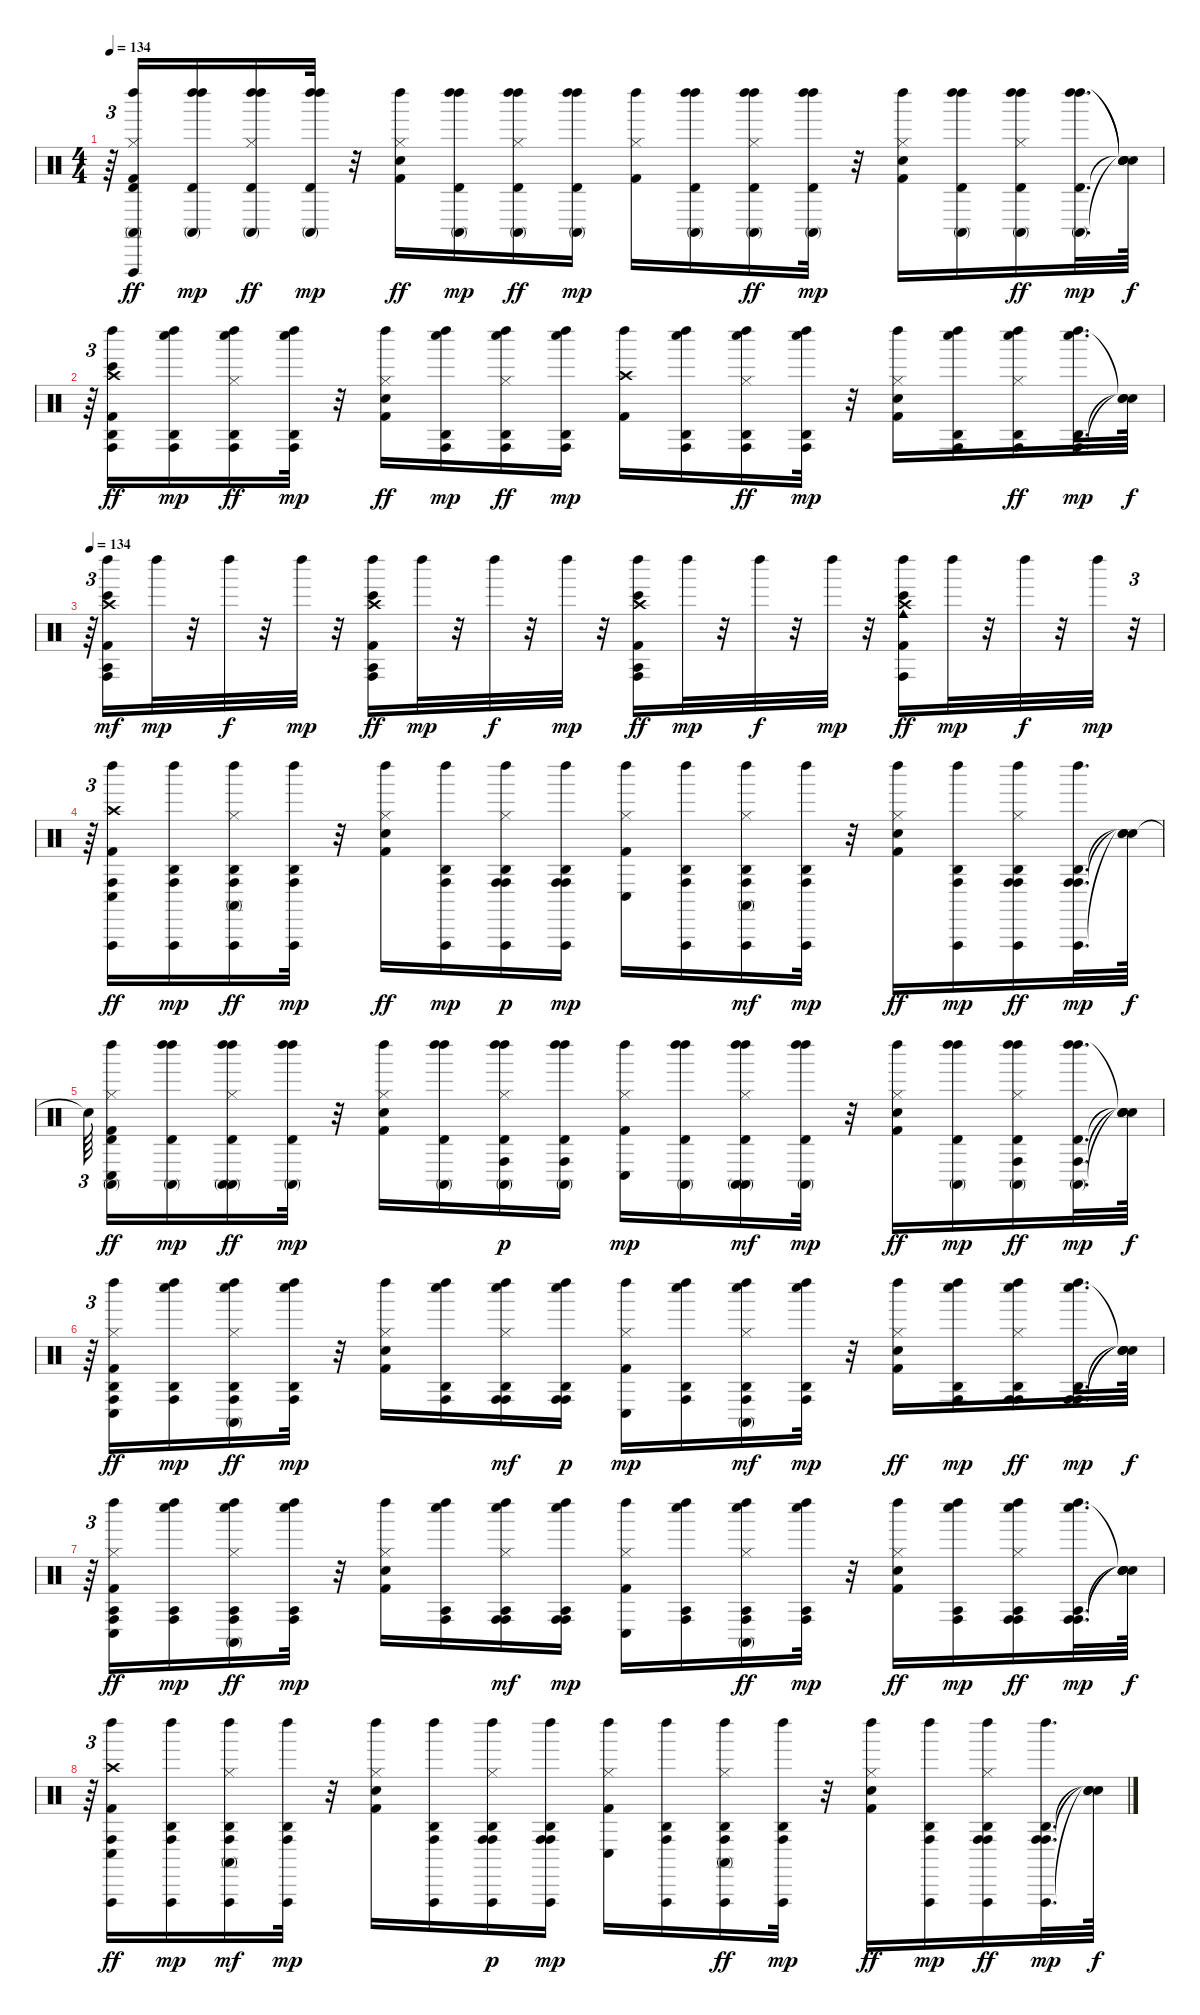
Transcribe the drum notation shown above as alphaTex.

\track "" {instrument percussion}
\staff {score}
\articulation defaults
\ts (4 4)
\tempo 134
\clef neutral
\ks c
r.64{tu (3 2) dy f} ("Left Maraca (hit)" "Hi-Hat (closed)" "Kick (hit) 2" "Timbale high (hit)" "Conga high (mute)" "Vibraslap (hit)").16{dy ff} ("Left Maraca (hit)" "Timbale high (hit)" "Conga high (mute)" "Left Maraca (hit)").16{dy mp} ("Left Maraca (hit)" "Timbale high (hit)" "Conga high (mute)" "Left Maraca (hit)" "Hi-Hat (closed)").16{dy ff} ("Left Maraca (hit)" "Timbale high (hit)" "Conga high (mute)" "Left Maraca (hit)").32{dy mp} r.32 ("Left Maraca (hit)" "Hi-Hat (closed)" "Snare (hit) 2" "Kick (hit) 2").16{dy ff} ("Left Maraca (hit)" "Timbale high (hit)" "Conga high (mute)" "Left Maraca (hit)").16{dy mp} ("Left Maraca (hit)" "Timbale high (hit)" "Conga high (mute)" "Hi-Hat (closed)" "Left Maraca (hit)").16{dy ff} ("Left Maraca (hit)" "Timbale high (hit)" "Conga high (mute)" "Left Maraca (hit)").16{dy mp} ("Kick (hit) 2" "Hi-Hat (closed)" "Left Maraca (hit)").16 ("Left Maraca (hit)" "Timbale high (hit)" "Conga high (mute)" "Left Maraca (hit)").16 ("Left Maraca (hit)" "Timbale high (hit)" "Conga high (mute)" "Hi-Hat (closed)" "Left Maraca (hit)").16{dy ff} ("Left Maraca (hit)" "Timbale high (hit)" "Conga high (mute)" "Left Maraca (hit)").32{dy mp} r.32 ("Kick (hit) 2" "Snare (hit) 2" "Hi-Hat (closed)" "Left Maraca (hit)").16 ("Left Maraca (hit)" "Timbale high (hit)" "Conga high (mute)" "Left Maraca (hit)").16 ("Left Maraca (hit)" "Timbale high (hit)" "Conga high (mute)" "Left Maraca (hit)" "Hi-Hat (closed)").16{dy ff} ("Left Maraca (hit)" "Timbale high (hit)" "Conga high (mute)" "Left Maraca (hit)").32{d dy mp} ("Snare (hit)"{t} "Snare (hit)"{t} "Snare (hit)"{t} "Snare (hit)"{t}).64{dy f} |
r.64{tu (3 2)} ("Left Maraca (hit)" "Crash high (hit)" "Kick (hit) 2" "Agogo high (hit)" "Conga high (hit)" "Bongo High (hit)").16{dy ff} ("Whistle low (hit)" "Agogo high (hit)" "Conga high (hit)" "Left Maraca (hit)").16{dy mp} ("Whistle low (hit)" "Agogo high (hit)" "Conga high (hit)" "Left Maraca (hit)" "Hi-Hat (closed)").16{dy ff} ("Whistle low (hit)" "Agogo high (hit)" "Conga high (hit)" "Left Maraca (hit)").32{dy mp} r.32 ("Left Maraca (hit)" "Hi-Hat (closed)" "Snare (hit) 2" "Kick (hit) 2").16{dy ff} ("Conga high (hit)" "Agogo high (hit)" "Whistle low (hit)" "Left Maraca (hit)").16{dy mp} ("Whistle low (hit)" "Agogo high (hit)" "Conga high (hit)" "Hi-Hat (closed)" "Left Maraca (hit)").16{dy ff} ("Whistle low (hit)" "Agogo high (hit)" "Conga high (hit)" "Left Maraca (hit)").16{dy mp} ("Kick (hit) 2" "Crash high (hit)" "Left Maraca (hit)").16 ("Whistle low (hit)" "Agogo high (hit)" "Conga high (hit)" "Left Maraca (hit)").16 ("Whistle low (hit)" "Agogo high (hit)" "Conga high (hit)" "Hi-Hat (closed)" "Left Maraca (hit)").16{dy ff} ("Whistle low (hit)" "Agogo high (hit)" "Conga high (hit)" "Left Maraca (hit)").32{dy mp} r.32 ("Kick (hit) 2" "Snare (hit) 2" "Hi-Hat (closed)" "Left Maraca (hit)").16 ("Whistle low (hit)" "Agogo high (hit)" "Conga high (hit)" "Left Maraca (hit)").16 ("Whistle low (hit)" "Agogo high (hit)" "Conga high (hit)" "Left Maraca (hit)" "Hi-Hat (closed)").16{dy ff} ("Whistle low (hit)" "Agogo high (hit)" "Conga high (hit)" "Left Maraca (hit)").32{d dy mp} ("Snare (hit)"{t} "Snare (hit)"{t} "Snare (hit)"{t}).64{dy f} |
\tempo 134
r.64{tu (3 2)} ("Left Maraca (hit)" "Crash high (hit)" "Kick (hit) 2" "Agogo tow (hit)" "Conga high (hit)" "Bongo High (hit)").16{dy mf} "Left Maraca (hit)".32{dy mp} r.32 "Left Maraca (hit)".32{dy f} r.32 "Left Maraca (hit)".32{dy mp} r.32 ("Left Maraca (hit)" "Crash high (hit)" "Kick (hit) 2" "Agogo tow (hit)" "Conga high (hit)" "Bongo High (hit)").16{dy ff} "Left Maraca (hit)".32{dy mp} r.32 "Left Maraca (hit)".32{dy f} r.32 "Left Maraca (hit)".32{dy mp} r.32 ("Kick (hit) 2" "Crash high (hit)" "Left Maraca (hit)" "Agogo tow (hit)" "Conga high (hit)" "Bongo High (hit)").16{dy ff} "Left Maraca (hit)".32{dy mp} r.32 "Left Maraca (hit)".32{dy f} r.32 "Left Maraca (hit)".32{dy mp} r.32 ("Kick (hit) 2" "Crash high (hit)" "Left Maraca (hit)" "Cowbell medium (hit)" "Bongo High (hit)" "Conga high (hit)").16{dy ff} "Left Maraca (hit)".32{dy mp} r.32 "Left Maraca (hit)".32{dy f} r.32 "Left Maraca (hit)".32{dy mp} r.32{tu (3 2)} |
r.64{tu (3 2)} ("Left Maraca (hit)" "Conga low (hit)" "Crash high (hit)" "Kick (hit) 2" "Conga high (hit)" "Vibraslap (hit)").16{dy ff} ("Agogo high (hit)" "Conga high (hit)" "Vibraslap (hit)" "Left Maraca (hit)").16{dy mp} ("Agogo high (hit)" "Conga high (hit)" "Vibraslap (hit)" "Left Maraca (hit)" "Conga high (mute)" "Hi-Hat (closed)").16{dy ff} ("Agogo high (hit)" "Conga high (hit)" "Vibraslap (hit)" "Left Maraca (hit)").32{dy mp} r.32 ("Left Maraca (hit)" "Hi-Hat (closed)" "Snare (hit) 2" "Kick (hit) 2").16{dy ff} ("Agogo high (hit)" "Conga high (hit)" "Vibraslap (hit)" "Left Maraca (hit)").16{dy mp} ("Agogo high (hit)" "Conga high (hit)" "Vibraslap (hit)" "Hi-Hat (closed)" "Conga high (hit)" "Left Maraca (hit)").16{dy p} ("Agogo high (hit)" "Conga high (hit)" "Vibraslap (hit)" "Left Maraca (hit)" "Conga high (hit)").16{dy mp} ("Kick (hit) 2" "Hi-Hat (closed)" "Conga low (hit)" "Left Maraca (hit)").16 ("Agogo high (hit)" "Conga high (hit)" "Vibraslap (hit)" "Left Maraca (hit)").16 ("Agogo high (hit)" "Conga high (hit)" "Vibraslap (hit)" "Hi-Hat (closed)" "Conga high (mute)" "Left Maraca (hit)").16{dy mf} ("Agogo high (hit)" "Conga high (hit)" "Vibraslap (hit)" "Left Maraca (hit)").32{dy mp} r.32 ("Left Maraca (hit)" "Hi-Hat (closed)" "Snare (hit) 2" "Kick (hit) 2").16{dy ff} ("Agogo high (hit)" "Conga high (hit)" "Vibraslap (hit)" "Left Maraca (hit)").16{dy mp} ("Agogo high (hit)" "Conga high (hit)" "Vibraslap (hit)" "Left Maraca (hit)" "Conga high (hit)" "Hi-Hat (closed)").16{dy ff} ("Agogo high (hit)" "Conga high (hit)" "Vibraslap (hit)" "Conga high (hit)" "Left Maraca (hit)").32{d dy mp} ("Snare (hit)"{t} "Snare (hit)"{t} "Snare (hit)"{t}).64{dy f} |
"Snare (hit)"{t}.64{tu (3 2) beam splitsecondary} ("Left Maraca (hit)" "Conga low (hit)" "Hi-Hat (closed)" "Kick (hit) 2" "Timbale high (hit)" "Conga high (mute)").16{dy ff} ("Left Maraca (hit)" "Timbale high (hit)" "Conga high (mute)" "Left Maraca (hit)").16{dy mp} ("Left Maraca (hit)" "Timbale high (hit)" "Conga high (mute)" "Left Maraca (hit)" "Conga high (mute)" "Hi-Hat (closed)").16{dy ff} ("Conga high (mute)" "Timbale high (hit)" "Left Maraca (hit)" "Left Maraca (hit)").32{dy mp} r.32 ("Kick (hit) 2" "Snare (hit) 2" "Hi-Hat (closed)" "Left Maraca (hit)").16 ("Left Maraca (hit)" "Timbale high (hit)" "Conga high (mute)" "Left Maraca (hit)").16 ("Left Maraca (hit)" "Timbale high (hit)" "Conga high (mute)" "Hi-Hat (closed)" "Conga high (hit)" "Left Maraca (hit)").16{dy p} ("Left Maraca (hit)" "Timbale high (hit)" "Conga high (mute)" "Left Maraca (hit)" "Conga high (hit)").16 ("Kick (hit) 2" "Hi-Hat (closed)" "Conga low (hit)" "Left Maraca (hit)").16{dy mp} ("Left Maraca (hit)" "Timbale high (hit)" "Conga high (mute)" "Left Maraca (hit)").16 ("Left Maraca (hit)" "Timbale high (hit)" "Conga high (mute)" "Hi-Hat (closed)" "Conga high (mute)" "Left Maraca (hit)").16{dy mf} ("Left Maraca (hit)" "Timbale high (hit)" "Conga high (mute)" "Left Maraca (hit)").32{dy mp} r.32 ("Left Maraca (hit)" "Hi-Hat (closed)" "Snare (hit) 2" "Kick (hit) 2").16{dy ff} ("Left Maraca (hit)" "Timbale high (hit)" "Conga high (mute)" "Left Maraca (hit)").16{dy mp} ("Left Maraca (hit)" "Timbale high (hit)" "Conga high (mute)" "Left Maraca (hit)" "Conga high (hit)" "Hi-Hat (closed)").16{dy ff} ("Left Maraca (hit)" "Timbale high (hit)" "Conga high (mute)" "Conga high (hit)" "Left Maraca (hit)").32{d dy mp} ("Snare (hit)"{t} "Snare (hit)"{t} "Snare (hit)"{t} "Snare (hit)"{t}).64{dy f} |
r.64{tu (3 2)} ("Left Maraca (hit)" "Conga low (hit)" "Hi-Hat (closed)" "Kick (hit) 2" "Agogo high (hit)" "Conga high (hit)").16{dy ff} ("Whistle low (hit)" "Agogo high (hit)" "Conga high (hit)" "Left Maraca (hit)").16{dy mp} ("Whistle low (hit)" "Agogo high (hit)" "Conga high (hit)" "Left Maraca (hit)" "Conga high (mute)" "Hi-Hat (closed)").16{dy ff} ("Whistle low (hit)" "Agogo high (hit)" "Conga high (hit)" "Left Maraca (hit)").32{dy mp} r.32 ("Kick (hit) 2" "Snare (hit) 2" "Hi-Hat (closed)" "Left Maraca (hit)").16 ("Whistle low (hit)" "Agogo high (hit)" "Conga high (hit)" "Left Maraca (hit)").16 ("Whistle low (hit)" "Agogo high (hit)" "Conga high (hit)" "Hi-Hat (closed)" "Conga high (hit)" "Left Maraca (hit)").16{dy mf} ("Whistle low (hit)" "Agogo high (hit)" "Conga high (hit)" "Left Maraca (hit)" "Conga high (hit)").16{dy p} ("Kick (hit) 2" "Hi-Hat (closed)" "Conga low (hit)" "Left Maraca (hit)").16{dy mp} ("Whistle low (hit)" "Agogo high (hit)" "Conga high (hit)" "Left Maraca (hit)").16 ("Whistle low (hit)" "Agogo high (hit)" "Conga high (hit)" "Hi-Hat (closed)" "Conga high (mute)" "Left Maraca (hit)").16{dy mf} ("Whistle low (hit)" "Agogo high (hit)" "Conga high (hit)" "Left Maraca (hit)").32{dy mp} r.32 ("Left Maraca (hit)" "Hi-Hat (closed)" "Snare (hit) 2" "Kick (hit) 2").16{dy ff} ("Whistle low (hit)" "Agogo high (hit)" "Conga high (hit)" "Left Maraca (hit)").16{dy mp} ("Whistle low (hit)" "Agogo high (hit)" "Conga high (hit)" "Left Maraca (hit)" "Conga high (hit)" "Hi-Hat (closed)").16{dy ff} ("Whistle low (hit)" "Agogo high (hit)" "Conga high (hit)" "Conga high (hit)" "Left Maraca (hit)").32{d dy mp} ("Snare (hit)"{t} "Snare (hit)"{t} "Snare (hit)"{t} "Snare (hit)"{t}).64{dy f} |
r.64{tu (3 2)} ("Left Maraca (hit)" "Conga low (hit)" "Hi-Hat (closed)" "Kick (hit) 2" "Agogo tow (hit)" "Conga high (hit)").16{dy ff} ("Whistle low (hit)" "Agogo tow (hit)" "Conga high (hit)" "Left Maraca (hit)").16{dy mp} ("Whistle low (hit)" "Agogo tow (hit)" "Conga high (hit)" "Left Maraca (hit)" "Conga high (mute)" "Hi-Hat (closed)").16{dy ff} ("Whistle low (hit)" "Agogo tow (hit)" "Conga high (hit)" "Left Maraca (hit)").32{dy mp} r.32 ("Kick (hit) 2" "Snare (hit) 2" "Hi-Hat (closed)" "Left Maraca (hit)").16 ("Whistle low (hit)" "Agogo tow (hit)" "Conga high (hit)" "Left Maraca (hit)").16 ("Whistle low (hit)" "Agogo tow (hit)" "Conga high (hit)" "Hi-Hat (closed)" "Conga high (hit)" "Left Maraca (hit)").16{dy mf} ("Whistle low (hit)" "Agogo tow (hit)" "Conga high (hit)" "Left Maraca (hit)" "Conga high (hit)").16{dy mp} ("Kick (hit) 2" "Hi-Hat (closed)" "Conga low (hit)" "Left Maraca (hit)").16 ("Whistle low (hit)" "Agogo tow (hit)" "Conga high (hit)" "Left Maraca (hit)").16 ("Whistle low (hit)" "Agogo tow (hit)" "Conga high (hit)" "Left Maraca (hit)" "Conga high (mute)" "Hi-Hat (closed)").16{dy ff} ("Whistle low (hit)" "Agogo tow (hit)" "Conga high (hit)" "Left Maraca (hit)").32{dy mp} r.32 ("Left Maraca (hit)" "Hi-Hat (closed)" "Snare (hit) 2" "Kick (hit) 2").16{dy ff} ("Whistle low (hit)" "Agogo tow (hit)" "Conga high (hit)" "Left Maraca (hit)").16{dy mp} ("Whistle low (hit)" "Agogo tow (hit)" "Conga high (hit)" "Left Maraca (hit)" "Conga high (hit)" "Hi-Hat (closed)").16{dy ff} ("Whistle low (hit)" "Agogo tow (hit)" "Conga high (hit)" "Conga high (hit)" "Left Maraca (hit)").32{d dy mp} ("Snare (hit)"{t} "Snare (hit)"{t} "Snare (hit)"{t} "Snare (hit)"{t}).64{dy f} |
r.64{tu (3 2)} ("Left Maraca (hit)" "Conga low (hit)" "Crash high (hit)" "Kick (hit) 2" "Conga high (hit)" "Vibraslap (hit)").16{dy ff} ("Agogo high (hit)" "Conga high (hit)" "Vibraslap (hit)" "Left Maraca (hit)").16{dy mp} ("Agogo high (hit)" "Conga high (hit)" "Vibraslap (hit)" "Hi-Hat (closed)" "Conga high (mute)" "Left Maraca (hit)").16{dy mf} ("Agogo high (hit)" "Conga high (hit)" "Vibraslap (hit)" "Left Maraca (hit)").32{dy mp} r.32 ("Kick (hit) 2" "Snare (hit) 2" "Hi-Hat (closed)" "Left Maraca (hit)").16 ("Agogo high (hit)" "Conga high (hit)" "Vibraslap (hit)" "Left Maraca (hit)").16 ("Agogo high (hit)" "Conga high (hit)" "Vibraslap (hit)" "Hi-Hat (closed)" "Conga high (hit)" "Left Maraca (hit)").16{dy p} ("Agogo high (hit)" "Conga high (hit)" "Vibraslap (hit)" "Left Maraca (hit)" "Conga high (hit)").16{dy mp} ("Kick (hit) 2" "Hi-Hat (closed)" "Conga low (hit)" "Left Maraca (hit)").16 ("Agogo high (hit)" "Conga high (hit)" "Vibraslap (hit)" "Left Maraca (hit)").16 ("Agogo high (hit)" "Conga high (hit)" "Vibraslap (hit)" "Left Maraca (hit)" "Conga high (mute)" "Hi-Hat (closed)").16{dy ff} ("Agogo high (hit)" "Conga high (hit)" "Vibraslap (hit)" "Left Maraca (hit)").32{dy mp} r.32 ("Left Maraca (hit)" "Hi-Hat (closed)" "Snare (hit) 2" "Kick (hit) 2").16{dy ff} ("Agogo high (hit)" "Conga high (hit)" "Vibraslap (hit)" "Left Maraca (hit)").16{dy mp} ("Agogo high (hit)" "Conga high (hit)" "Vibraslap (hit)" "Left Maraca (hit)" "Conga high (hit)" "Hi-Hat (closed)").16{dy ff} ("Agogo high (hit)" "Conga high (hit)" "Vibraslap (hit)" "Conga high (hit)" "Left Maraca (hit)").32{d dy mp} ("Snare (hit)"{t} "Snare (hit)"{t} "Snare (hit)"{t}).64{dy f}
